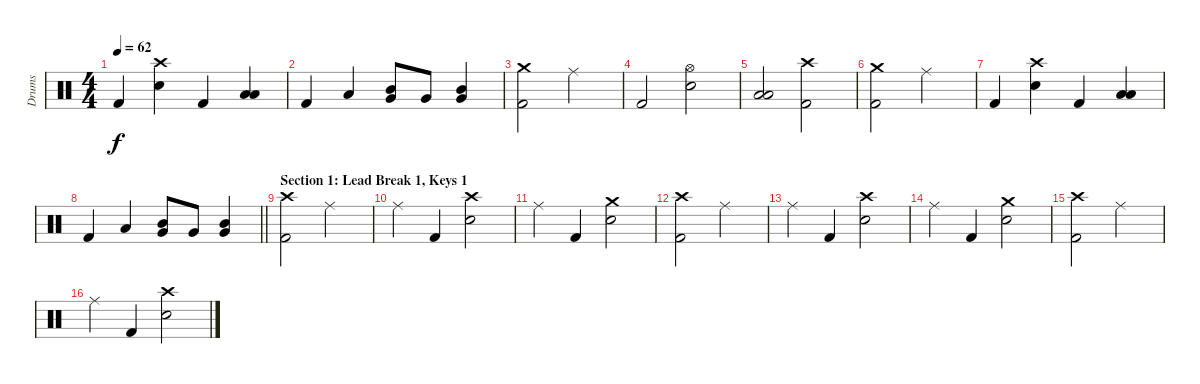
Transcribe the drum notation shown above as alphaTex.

\track ("Drums" "Drums") {instrument percussion}
\staff {score}
\articulation defaults
\ts (4 4)
\tempo 62
\clef neutral
\ks c "Kick (hit) 2".4{dy f}
("Crash high (hit)" "Electric Snare (hit)").4 "Kick (hit) 2".4 ("Low Tom (hit)" "Low Floor Tom (hit)").4 |
"Kick (hit) 2".4 "Low Floor Tom (hit)".4 ("Mid Tom (hit)" "Very Low Tom (hit)").8 "Very Low Tom (hit)".8 ("Mid Tom (hit)" "Very Low Tom (hit)").4 |
("Crash medium (hit)" "Kick (hit) 2").2 "Ride (middle)".2 |
"Kick (hit) 2".2 ("Hi-Hat (open)" "Electric Snare (hit)").2 |
("Low Tom (hit)" "Low Floor Tom (hit)").2 ("Crash high (hit)" "Kick (hit) 2").2 |
("Crash medium (hit)" "Kick (hit) 2").2 "Ride (middle)".2 |
"Kick (hit) 2".4 ("Crash high (hit)" "Electric Snare (hit)").4 "Kick (hit) 2".4 ("Low Tom (hit)" "Low Floor Tom (hit)").4 |
\barLineRight lightlight "Kick (hit) 2".4 "Low Floor Tom (hit)".4
("Mid Tom (hit)" "Very Low Tom (hit)").8 "Very Low Tom (hit)".8 ("Mid Tom (hit)" "Very Low Tom (hit)").4 |
\section ("" "Section 1: Lead Break 1, Keys 1")
("Crash high (hit)" "Kick (hit) 2").2 "Ride (middle)".2 |
"Ride (middle)".4 "Kick (hit) 2".4 ("Crash high (hit)" "Electric Snare (hit)").2 |
"Ride (middle)".4 "Kick (hit) 2".4 ("Crash medium (hit)" "Electric Snare (hit)").2 |
("Crash high (hit)" "Kick (hit) 2").2 "Ride (middle)".2 |
"Ride (middle)".4 "Kick (hit) 2".4 ("Crash high (hit)" "Electric Snare (hit)").2 |
"Ride (middle)".4 "Kick (hit) 2".4 ("Crash medium (hit)" "Electric Snare (hit)").2 |
("Crash high (hit)" "Kick (hit) 2").2 "Ride (middle)".2 |
"Ride (middle)".4 "Kick (hit) 2".4 ("Crash high (hit)" "Electric Snare (hit)").2
